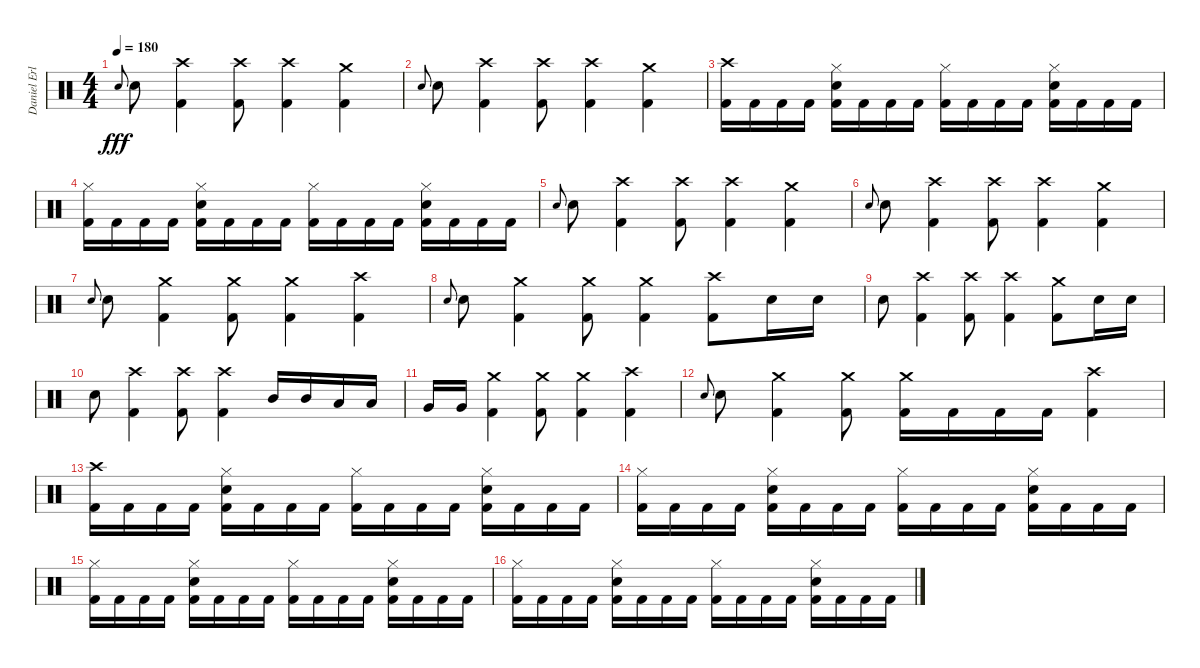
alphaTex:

\track ("Daniel Erlandsson" "Daniel Erl") {instrument percussion}
\staff {score}
\articulation defaults
\ts (4 4)
\tempo 180
\clef neutral
\ks c "Electric Snare (hit)".8{gr onbeat dy fff} "Electric Snare (hit)".8
("Crash high (hit)" "Kick (hit) 2").4 ("Crash high (hit)" "Kick (hit) 2").8 ("Crash high (hit)" "Kick (hit) 2").4 ("Crash medium (hit)" "Kick (hit) 2").4 |
"Electric Snare (hit)".8{gr onbeat} "Electric Snare (hit)".8 ("Crash high (hit)" "Kick (hit) 2").4 ("Crash high (hit)" "Kick (hit) 2").8 ("Crash high (hit)" "Kick (hit) 2").4 ("Crash medium (hit)" "Kick (hit) 2").4 |
("Crash high (hit)" "Kick (hit) 2").16 "Kick (hit) 2".16 "Kick (hit) 2".16 "Kick (hit) 2".16 ("Hi-Hat (closed)" "Electric Snare (hit)" "Kick (hit) 2").16 "Kick (hit) 2".16 "Kick (hit) 2".16 "Kick (hit) 2".16 ("Hi-Hat (closed)" "Kick (hit) 2").16 "Kick (hit) 2".16 "Kick (hit) 2".16 "Kick (hit) 2".16 ("Hi-Hat (closed)" "Electric Snare (hit)" "Kick (hit) 2").16 "Kick (hit) 2".16 "Kick (hit) 2".16 "Kick (hit) 2".16 |
("Hi-Hat (closed)" "Kick (hit) 2").16 "Kick (hit) 2".16 "Kick (hit) 2".16 "Kick (hit) 2".16 ("Hi-Hat (closed)" "Electric Snare (hit)" "Kick (hit) 2").16 "Kick (hit) 2".16 "Kick (hit) 2".16 "Kick (hit) 2".16 ("Hi-Hat (closed)" "Kick (hit) 2").16 "Kick (hit) 2".16 "Kick (hit) 2".16 "Kick (hit) 2".16 ("Hi-Hat (closed)" "Electric Snare (hit)" "Kick (hit) 2").16 "Kick (hit) 2".16 "Kick (hit) 2".16 "Kick (hit) 2".16 |
"Electric Snare (hit)".8{gr onbeat} "Electric Snare (hit)".8 ("Crash high (hit)" "Kick (hit) 2").4 ("Crash high (hit)" "Kick (hit) 2").8 ("Crash high (hit)" "Kick (hit) 2").4 ("Crash medium (hit)" "Kick (hit) 2").4 |
"Electric Snare (hit)".8{gr onbeat} "Electric Snare (hit)".8 ("Crash high (hit)" "Kick (hit) 2").4 ("Crash high (hit)" "Kick (hit) 2").8 ("Crash high (hit)" "Kick (hit) 2").4 ("Crash medium (hit)" "Kick (hit) 2").4 |
"Electric Snare (hit)".8{gr onbeat} "Electric Snare (hit)".8 ("Crash medium (hit)" "Kick (hit) 2").4 ("Crash medium (hit)" "Kick (hit) 2").8 ("Crash medium (hit)" "Kick (hit) 2").4 ("Crash high (hit)" "Kick (hit) 2").4 |
"Electric Snare (hit)".8{gr onbeat} "Electric Snare (hit)".8 ("Crash medium (hit)" "Kick (hit) 2").4 ("Crash medium (hit)" "Kick (hit) 2").8 ("Crash medium (hit)" "Kick (hit) 2").4 ("Crash high (hit)" "Kick (hit) 2").8 "Electric Snare (hit)".16 "Electric Snare (hit)".16 |
"Electric Snare (hit)".8 ("Crash high (hit)" "Kick (hit) 2").4 ("Crash high (hit)" "Kick (hit) 2").8 ("Crash high (hit)" "Kick (hit) 2").4 ("Crash medium (hit)" "Kick (hit) 2").8 "Electric Snare (hit)".16 "Electric Snare (hit)".16 |
"Electric Snare (hit)".8 ("Crash high (hit)" "Kick (hit) 2").4 ("Crash high (hit)" "Kick (hit) 2").8 ("Crash high (hit)" "Kick (hit) 2").4 "Mid Tom (hit)".16 "Mid Tom (hit)".16 "Low Tom (hit)".16 "Low Tom (hit)".16 |
"Very Low Tom (hit)".16 "Very Low Tom (hit)".16 ("Crash medium (hit)" "Kick (hit) 2").4 ("Crash medium (hit)" "Kick (hit) 2").8 ("Crash medium (hit)" "Kick (hit) 2").4 ("Crash high (hit)" "Kick (hit) 2").4 |
"Electric Snare (hit)".8{gr onbeat} "Electric Snare (hit)".8 ("Crash medium (hit)" "Kick (hit) 2").4 ("Crash medium (hit)" "Kick (hit) 2").8 ("Crash medium (hit)" "Kick (hit) 2").16 "Kick (hit) 2".16 "Kick (hit) 2".16 "Kick (hit) 2".16 ("Crash high (hit)" "Kick (hit) 2").4 |
("Crash high (hit)" "Kick (hit) 2").16 "Kick (hit) 2".16 "Kick (hit) 2".16 "Kick (hit) 2".16 ("Hi-Hat (closed)" "Electric Snare (hit)" "Kick (hit) 2").16 "Kick (hit) 2".16 "Kick (hit) 2".16 "Kick (hit) 2".16 ("Hi-Hat (closed)" "Kick (hit) 2").16 "Kick (hit) 2".16 "Kick (hit) 2".16 "Kick (hit) 2".16 ("Hi-Hat (closed)" "Electric Snare (hit)" "Kick (hit) 2").16 "Kick (hit) 2".16 "Kick (hit) 2".16 "Kick (hit) 2".16 |
("Hi-Hat (closed)" "Kick (hit) 2").16 "Kick (hit) 2".16 "Kick (hit) 2".16 "Kick (hit) 2".16 ("Hi-Hat (closed)" "Electric Snare (hit)" "Kick (hit) 2").16 "Kick (hit) 2".16 "Kick (hit) 2".16 "Kick (hit) 2".16 ("Hi-Hat (closed)" "Kick (hit) 2").16 "Kick (hit) 2".16 "Kick (hit) 2".16 "Kick (hit) 2".16 ("Hi-Hat (closed)" "Electric Snare (hit)" "Kick (hit) 2").16 "Kick (hit) 2".16 "Kick (hit) 2".16 "Kick (hit) 2".16 |
("Hi-Hat (closed)" "Kick (hit) 2").16 "Kick (hit) 2".16 "Kick (hit) 2".16 "Kick (hit) 2".16 ("Hi-Hat (closed)" "Electric Snare (hit)" "Kick (hit) 2").16 "Kick (hit) 2".16 "Kick (hit) 2".16 "Kick (hit) 2".16 ("Hi-Hat (closed)" "Kick (hit) 2").16 "Kick (hit) 2".16 "Kick (hit) 2".16 "Kick (hit) 2".16 ("Hi-Hat (closed)" "Electric Snare (hit)" "Kick (hit) 2").16 "Kick (hit) 2".16 "Kick (hit) 2".16 "Kick (hit) 2".16 |
("Hi-Hat (closed)" "Kick (hit) 2").16 "Kick (hit) 2".16 "Kick (hit) 2".16 "Kick (hit) 2".16 ("Hi-Hat (closed)" "Electric Snare (hit)" "Kick (hit) 2").16 "Kick (hit) 2".16 "Kick (hit) 2".16 "Kick (hit) 2".16 ("Hi-Hat (closed)" "Kick (hit) 2").16 "Kick (hit) 2".16 "Kick (hit) 2".16 "Kick (hit) 2".16 ("Hi-Hat (closed)" "Electric Snare (hit)" "Kick (hit) 2").16 "Kick (hit) 2".16 "Kick (hit) 2".16 "Kick (hit) 2".16
